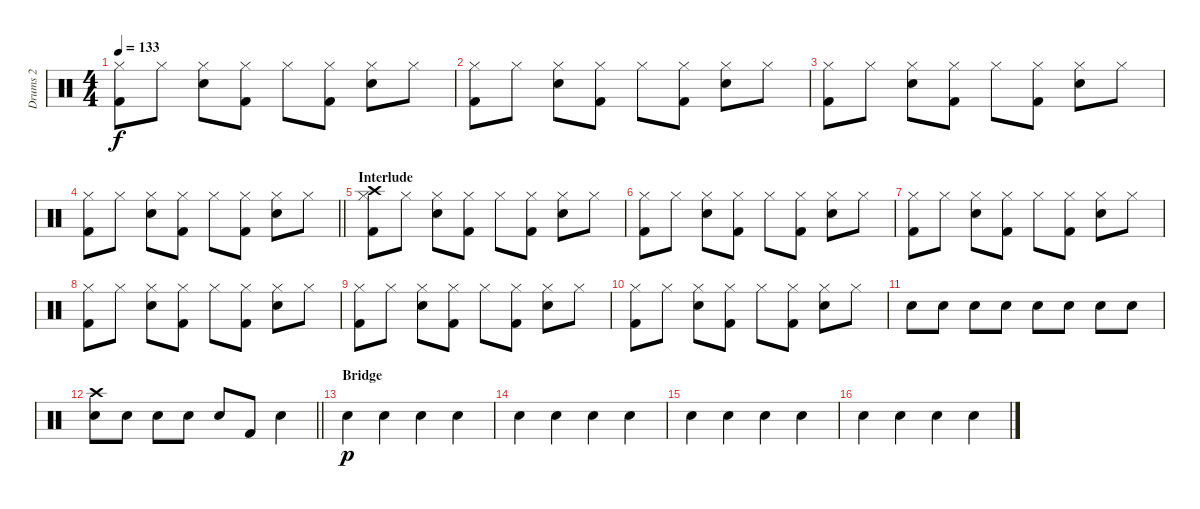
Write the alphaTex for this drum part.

\track ("Drums 2" "Drums 2") {instrument percussion}
\staff {score}
\articulation defaults
\ts (4 4)
\tempo 133
\clef neutral
\ks c
("Hi-Hat (closed)" "Kick (hit) 2").8{dy f} "Hi-Hat (closed)".8 ("Snare (hit) 2" "Hi-Hat (closed)").8 ("Hi-Hat (closed)" "Kick (hit) 2").8 "Hi-Hat (closed)".8 ("Hi-Hat (closed)" "Kick (hit) 2").8 ("Snare (hit) 2" "Hi-Hat (closed)").8 "Hi-Hat (closed)".8 |
("Hi-Hat (closed)" "Kick (hit) 2").8 "Hi-Hat (closed)".8 ("Snare (hit) 2" "Hi-Hat (closed)").8 ("Hi-Hat (closed)" "Kick (hit) 2").8 "Hi-Hat (closed)".8 ("Hi-Hat (closed)" "Kick (hit) 2").8 ("Snare (hit) 2" "Hi-Hat (closed)").8 "Hi-Hat (closed)".8 |
("Hi-Hat (closed)" "Kick (hit) 2").8 "Hi-Hat (closed)".8 ("Snare (hit) 2" "Hi-Hat (closed)").8 ("Hi-Hat (closed)" "Kick (hit) 2").8 "Hi-Hat (closed)".8 ("Hi-Hat (closed)" "Kick (hit) 2").8 ("Snare (hit) 2" "Hi-Hat (closed)").8 "Hi-Hat (closed)".8 |
\barLineRight lightlight
("Hi-Hat (closed)" "Kick (hit) 2").8 "Hi-Hat (closed)".8 ("Snare (hit) 2" "Hi-Hat (closed)").8 ("Hi-Hat (closed)" "Kick (hit) 2").8 "Hi-Hat (closed)".8 ("Hi-Hat (closed)" "Kick (hit) 2").8 ("Snare (hit) 2" "Hi-Hat (closed)").8 "Hi-Hat (closed)".8 |
\section ("" "Interlude")
("Crash high (hit)" "Hi-Hat (closed)" "Kick (hit) 2").8 "Hi-Hat (closed)".8 ("Snare (hit) 2" "Hi-Hat (closed)").8 ("Hi-Hat (closed)" "Kick (hit) 2").8 "Hi-Hat (closed)".8 ("Hi-Hat (closed)" "Kick (hit) 2").8 ("Snare (hit) 2" "Hi-Hat (closed)").8 "Hi-Hat (closed)".8 |
("Hi-Hat (closed)" "Kick (hit) 2").8 "Hi-Hat (closed)".8 ("Snare (hit) 2" "Hi-Hat (closed)").8 ("Hi-Hat (closed)" "Kick (hit) 2").8 "Hi-Hat (closed)".8 ("Hi-Hat (closed)" "Kick (hit) 2").8 ("Snare (hit) 2" "Hi-Hat (closed)").8 "Hi-Hat (closed)".8 |
("Hi-Hat (closed)" "Kick (hit) 2").8 "Hi-Hat (closed)".8 ("Snare (hit) 2" "Hi-Hat (closed)").8 ("Hi-Hat (closed)" "Kick (hit) 2").8 "Hi-Hat (closed)".8 ("Hi-Hat (closed)" "Kick (hit) 2").8 ("Snare (hit) 2" "Hi-Hat (closed)").8 "Hi-Hat (closed)".8 |
("Hi-Hat (closed)" "Kick (hit) 2").8 "Hi-Hat (closed)".8 ("Snare (hit) 2" "Hi-Hat (closed)").8 ("Hi-Hat (closed)" "Kick (hit) 2").8 "Hi-Hat (closed)".8 ("Hi-Hat (closed)" "Kick (hit) 2").8 ("Snare (hit) 2" "Hi-Hat (closed)").8 "Hi-Hat (closed)".8 |
("Hi-Hat (closed)" "Kick (hit) 2").8 "Hi-Hat (closed)".8 ("Snare (hit) 2" "Hi-Hat (closed)").8 ("Hi-Hat (closed)" "Kick (hit) 2").8 "Hi-Hat (closed)".8 ("Hi-Hat (closed)" "Kick (hit) 2").8 ("Snare (hit) 2" "Hi-Hat (closed)").8 "Hi-Hat (closed)".8 |
("Hi-Hat (closed)" "Kick (hit) 2").8 "Hi-Hat (closed)".8 ("Snare (hit) 2" "Hi-Hat (closed)").8 ("Hi-Hat (closed)" "Kick (hit) 2").8 "Hi-Hat (closed)".8 ("Hi-Hat (closed)" "Kick (hit) 2").8 ("Snare (hit) 2" "Hi-Hat (closed)").8 "Hi-Hat (closed)".8 |
"Electric Snare (hit)".8 "Electric Snare (hit)".8 "Electric Snare (hit)".8 "Electric Snare (hit)".8 "Electric Snare (hit)".8 "Electric Snare (hit)".8 "Electric Snare (hit)".8 "Electric Snare (hit)".8 |
\barLineRight lightlight
("Crash high (hit)" "Snare (hit) 2").8 "Electric Snare (hit)".8 "Electric Snare (hit)".8 "Electric Snare (hit)".8 "Electric Snare (hit)".8 "Kick (hit) 2".8 "Snare (hit) 2".4 |
\section ("" "Bridge")
"Snare (hit) 2".4{dy p} "Snare (hit) 2".4 "Snare (hit) 2".4 "Snare (hit) 2".4 |
"Snare (hit) 2".4 "Snare (hit) 2".4 "Snare (hit) 2".4 "Snare (hit) 2".4 |
"Snare (hit) 2".4 "Snare (hit) 2".4 "Snare (hit) 2".4 "Snare (hit) 2".4 |
"Snare (hit) 2".4 "Snare (hit) 2".4 "Snare (hit) 2".4 "Snare (hit) 2".4
